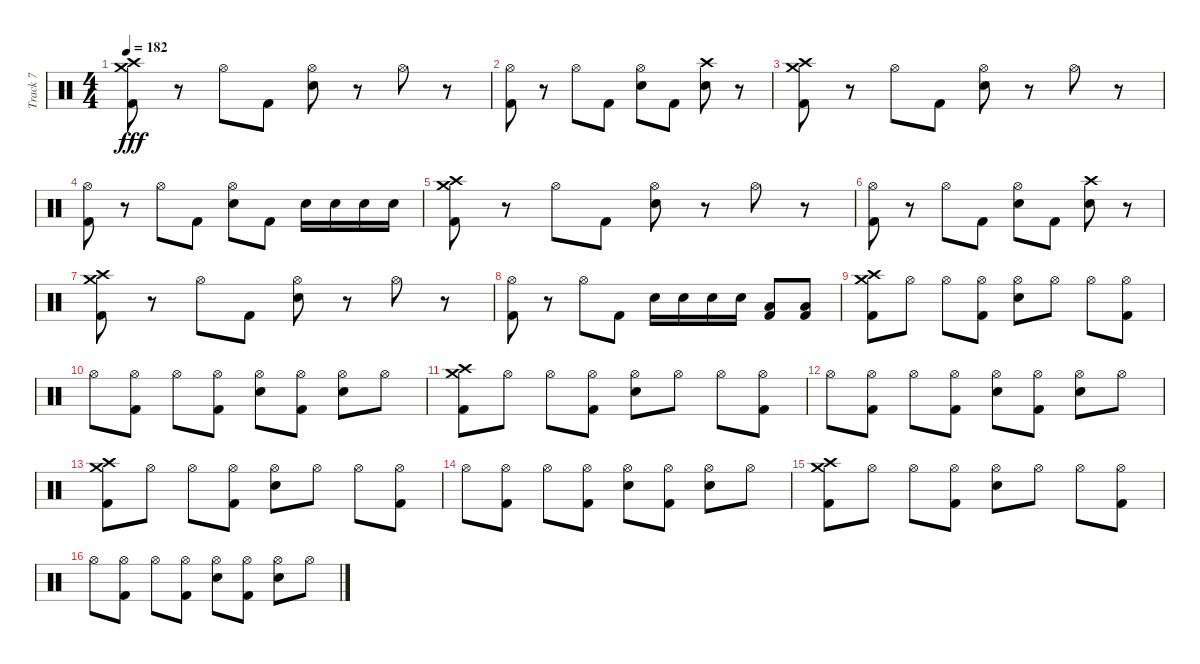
\track ("Track 7" "Track 7") {instrument percussion}
\staff {score}
\articulation defaults
\ts (4 4)
\tempo 182
\clef neutral
\ks c
("Kick (hit) 2" "Crash medium (hit)" "Crash high (hit)").8{dy fff} r.8 "Hi-Hat (open)".8 "Kick (hit) 2".8 ("Electric Snare (hit)" "Hi-Hat (open)").8 r.8 "Hi-Hat (open)".8 r.8 |
("Kick (hit) 2" "Hi-Hat (open)").8 r.8 "Hi-Hat (open)".8 "Kick (hit) 2".8 ("Electric Snare (hit)" "Hi-Hat (open)").8 "Kick (hit) 2".8 ("Electric Snare (hit)" "Crash high (hit)").8 r.8 |
("Kick (hit) 2" "Crash medium (hit)" "Crash high (hit)").8 r.8 "Hi-Hat (open)".8 "Kick (hit) 2".8 ("Electric Snare (hit)" "Hi-Hat (open)").8 r.8 "Hi-Hat (open)".8 r.8 |
("Kick (hit) 2" "Hi-Hat (open)").8 r.8 "Hi-Hat (open)".8 "Kick (hit) 2".8 ("Electric Snare (hit)" "Hi-Hat (open)").8 "Kick (hit) 2".8 "Electric Snare (hit)".16 "Electric Snare (hit)".16 "Electric Snare (hit)".16 "Electric Snare (hit)".16 |
("Kick (hit) 2" "Crash medium (hit)" "Crash high (hit)").8 r.8 "Hi-Hat (open)".8 "Kick (hit) 2".8 ("Electric Snare (hit)" "Hi-Hat (open)").8 r.8 "Hi-Hat (open)".8 r.8 |
("Kick (hit) 2" "Hi-Hat (open)").8 r.8 "Hi-Hat (open)".8 "Kick (hit) 2".8 ("Electric Snare (hit)" "Hi-Hat (open)").8 "Kick (hit) 2".8 ("Electric Snare (hit)" "Crash high (hit)").8 r.8 |
("Kick (hit) 2" "Crash medium (hit)" "Crash high (hit)").8 r.8 "Hi-Hat (open)".8 "Kick (hit) 2".8 ("Electric Snare (hit)" "Hi-Hat (open)").8 r.8 "Hi-Hat (open)".8 r.8 |
("Kick (hit) 2" "Hi-Hat (open)").8 r.8 "Hi-Hat (open)".8 "Kick (hit) 2".8 "Electric Snare (hit)".16 "Electric Snare (hit)".16 "Electric Snare (hit)".16 "Electric Snare (hit)".16 ("Kick (hit) 2" "Low Floor Tom (hit)").8 ("Kick (hit) 2" "Low Floor Tom (hit)").8 |
("Kick (hit) 2" "Crash medium (hit)" "Crash high (hit)").8 "Hi-Hat (open)".8 "Hi-Hat (open)".8 ("Kick (hit) 2" "Hi-Hat (open)").8 ("Electric Snare (hit)" "Hi-Hat (open)").8 "Hi-Hat (open)".8 "Hi-Hat (open)".8 ("Kick (hit) 2" "Hi-Hat (open)").8 |
"Hi-Hat (open)".8 ("Kick (hit) 2" "Hi-Hat (open)").8 "Hi-Hat (open)".8 ("Kick (hit) 2" "Hi-Hat (open)").8 ("Electric Snare (hit)" "Hi-Hat (open)").8 ("Kick (hit) 2" "Hi-Hat (open)").8 ("Electric Snare (hit)" "Hi-Hat (open)").8 "Hi-Hat (open)".8 |
("Kick (hit) 2" "Crash medium (hit)" "Crash high (hit)").8 "Hi-Hat (open)".8 "Hi-Hat (open)".8 ("Kick (hit) 2" "Hi-Hat (open)").8 ("Electric Snare (hit)" "Hi-Hat (open)").8 "Hi-Hat (open)".8 "Hi-Hat (open)".8 ("Kick (hit) 2" "Hi-Hat (open)").8 |
"Hi-Hat (open)".8 ("Kick (hit) 2" "Hi-Hat (open)").8 "Hi-Hat (open)".8 ("Kick (hit) 2" "Hi-Hat (open)").8 ("Electric Snare (hit)" "Hi-Hat (open)").8 ("Kick (hit) 2" "Hi-Hat (open)").8 ("Electric Snare (hit)" "Hi-Hat (open)").8 "Hi-Hat (open)".8 |
("Kick (hit) 2" "Crash medium (hit)" "Crash high (hit)").8 "Hi-Hat (open)".8 "Hi-Hat (open)".8 ("Kick (hit) 2" "Hi-Hat (open)").8 ("Electric Snare (hit)" "Hi-Hat (open)").8 "Hi-Hat (open)".8 "Hi-Hat (open)".8 ("Kick (hit) 2" "Hi-Hat (open)").8 |
"Hi-Hat (open)".8 ("Kick (hit) 2" "Hi-Hat (open)").8 "Hi-Hat (open)".8 ("Kick (hit) 2" "Hi-Hat (open)").8 ("Electric Snare (hit)" "Hi-Hat (open)").8 ("Kick (hit) 2" "Hi-Hat (open)").8 ("Electric Snare (hit)" "Hi-Hat (open)").8 "Hi-Hat (open)".8 |
("Kick (hit) 2" "Crash medium (hit)" "Crash high (hit)").8 "Hi-Hat (open)".8 "Hi-Hat (open)".8 ("Kick (hit) 2" "Hi-Hat (open)").8 ("Electric Snare (hit)" "Hi-Hat (open)").8 "Hi-Hat (open)".8 "Hi-Hat (open)".8 ("Kick (hit) 2" "Hi-Hat (open)").8 |
"Hi-Hat (open)".8 ("Kick (hit) 2" "Hi-Hat (open)").8 "Hi-Hat (open)".8 ("Kick (hit) 2" "Hi-Hat (open)").8 ("Electric Snare (hit)" "Hi-Hat (open)").8 ("Kick (hit) 2" "Hi-Hat (open)").8 ("Electric Snare (hit)" "Hi-Hat (open)").8 "Hi-Hat (open)".8
